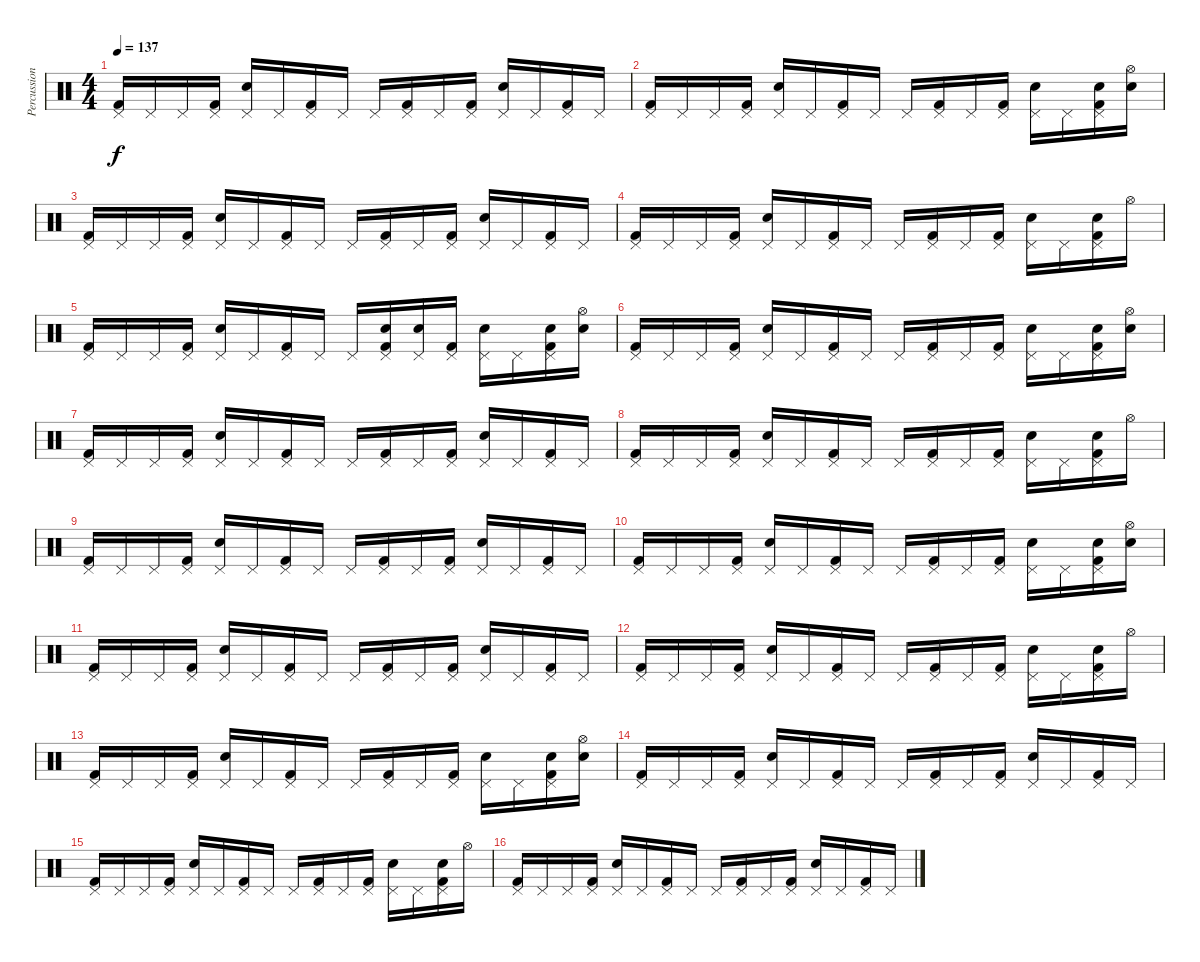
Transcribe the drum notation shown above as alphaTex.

\track ("Percussion" "Percussion") {instrument percussion}
\staff {score}
\articulation defaults
\ts (4 4)
\tempo 137
\clef neutral
\ks c
("Pedal Hi-Hat (hit)" "Kick (hit) 2").16{dy f} "Pedal Hi-Hat (hit)".16 "Pedal Hi-Hat (hit)".16 ("Pedal Hi-Hat (hit)" "Kick (hit) 2").16 ("Pedal Hi-Hat (hit)" "Snare (hit) 2").16 "Pedal Hi-Hat (hit)".16 ("Pedal Hi-Hat (hit)" "Kick (hit) 2").16 "Pedal Hi-Hat (hit)".16 "Pedal Hi-Hat (hit)".16 ("Pedal Hi-Hat (hit)" "Kick (hit) 2").16 "Pedal Hi-Hat (hit)".16 ("Pedal Hi-Hat (hit)" "Kick (hit) 2").16 ("Pedal Hi-Hat (hit)" "Snare (hit) 2").16 "Pedal Hi-Hat (hit)".16 ("Pedal Hi-Hat (hit)" "Kick (hit) 2").16 "Pedal Hi-Hat (hit)".16 |
("Pedal Hi-Hat (hit)" "Kick (hit) 2").16 "Pedal Hi-Hat (hit)".16 "Pedal Hi-Hat (hit)".16 ("Pedal Hi-Hat (hit)" "Kick (hit) 2").16 ("Pedal Hi-Hat (hit)" "Snare (hit) 2").16 "Pedal Hi-Hat (hit)".16 ("Pedal Hi-Hat (hit)" "Kick (hit) 2").16 "Pedal Hi-Hat (hit)".16 "Pedal Hi-Hat (hit)".16 ("Pedal Hi-Hat (hit)" "Kick (hit) 2").16 "Pedal Hi-Hat (hit)".16 ("Pedal Hi-Hat (hit)" "Kick (hit) 2").16 ("Pedal Hi-Hat (hit)" "Snare (hit) 2").16 "Pedal Hi-Hat (hit)".16 ("Pedal Hi-Hat (hit)" "Snare (hit) 2" "Kick (hit) 2").16 ("Hi-Hat (open)" "Snare (hit) 2").16 |
("Pedal Hi-Hat (hit)" "Kick (hit) 2").16 "Pedal Hi-Hat (hit)".16 "Pedal Hi-Hat (hit)".16 ("Pedal Hi-Hat (hit)" "Kick (hit) 2").16 ("Pedal Hi-Hat (hit)" "Snare (hit) 2").16 "Pedal Hi-Hat (hit)".16 ("Pedal Hi-Hat (hit)" "Kick (hit) 2").16 "Pedal Hi-Hat (hit)".16 "Pedal Hi-Hat (hit)".16 ("Pedal Hi-Hat (hit)" "Kick (hit) 2").16 "Pedal Hi-Hat (hit)".16 ("Pedal Hi-Hat (hit)" "Kick (hit) 2").16 ("Pedal Hi-Hat (hit)" "Snare (hit) 2").16 "Pedal Hi-Hat (hit)".16 ("Pedal Hi-Hat (hit)" "Kick (hit) 2").16 "Pedal Hi-Hat (hit)".16 |
("Pedal Hi-Hat (hit)" "Kick (hit) 2").16 "Pedal Hi-Hat (hit)".16 "Pedal Hi-Hat (hit)".16 ("Pedal Hi-Hat (hit)" "Kick (hit) 2").16 ("Pedal Hi-Hat (hit)" "Snare (hit) 2").16 "Pedal Hi-Hat (hit)".16 ("Pedal Hi-Hat (hit)" "Kick (hit) 2").16 "Pedal Hi-Hat (hit)".16 "Pedal Hi-Hat (hit)".16 ("Pedal Hi-Hat (hit)" "Kick (hit) 2").16 "Pedal Hi-Hat (hit)".16 ("Pedal Hi-Hat (hit)" "Kick (hit) 2").16 ("Pedal Hi-Hat (hit)" "Snare (hit) 2").16 "Pedal Hi-Hat (hit)".16 ("Pedal Hi-Hat (hit)" "Snare (hit) 2" "Kick (hit) 2").16 "Hi-Hat (open)".16 |
("Pedal Hi-Hat (hit)" "Kick (hit) 2").16 "Pedal Hi-Hat (hit)".16 "Pedal Hi-Hat (hit)".16 ("Pedal Hi-Hat (hit)" "Kick (hit) 2").16 ("Pedal Hi-Hat (hit)" "Snare (hit) 2").16 "Pedal Hi-Hat (hit)".16 ("Pedal Hi-Hat (hit)" "Kick (hit) 2").16 "Pedal Hi-Hat (hit)".16 "Pedal Hi-Hat (hit)".16 ("Pedal Hi-Hat (hit)" "Snare (hit) 2" "Kick (hit) 2").16 ("Pedal Hi-Hat (hit)" "Snare (hit) 2").16 ("Pedal Hi-Hat (hit)" "Kick (hit) 2").16 ("Pedal Hi-Hat (hit)" "Snare (hit) 2").16 "Pedal Hi-Hat (hit)".16 ("Pedal Hi-Hat (hit)" "Snare (hit) 2" "Kick (hit) 2").16 ("Hi-Hat (open)" "Snare (hit) 2").16 |
("Pedal Hi-Hat (hit)" "Kick (hit) 2").16 "Pedal Hi-Hat (hit)".16 "Pedal Hi-Hat (hit)".16 ("Pedal Hi-Hat (hit)" "Kick (hit) 2").16 ("Pedal Hi-Hat (hit)" "Snare (hit) 2").16 "Pedal Hi-Hat (hit)".16 ("Pedal Hi-Hat (hit)" "Kick (hit) 2").16 "Pedal Hi-Hat (hit)".16 "Pedal Hi-Hat (hit)".16 ("Pedal Hi-Hat (hit)" "Kick (hit) 2").16 "Pedal Hi-Hat (hit)".16 ("Pedal Hi-Hat (hit)" "Kick (hit) 2").16 ("Pedal Hi-Hat (hit)" "Snare (hit) 2").16 "Pedal Hi-Hat (hit)".16 ("Pedal Hi-Hat (hit)" "Snare (hit) 2" "Kick (hit) 2").16 ("Hi-Hat (open)" "Snare (hit) 2").16 |
("Pedal Hi-Hat (hit)" "Kick (hit) 2").16 "Pedal Hi-Hat (hit)".16 "Pedal Hi-Hat (hit)".16 ("Pedal Hi-Hat (hit)" "Kick (hit) 2").16 ("Pedal Hi-Hat (hit)" "Snare (hit) 2").16 "Pedal Hi-Hat (hit)".16 ("Pedal Hi-Hat (hit)" "Kick (hit) 2").16 "Pedal Hi-Hat (hit)".16 "Pedal Hi-Hat (hit)".16 ("Pedal Hi-Hat (hit)" "Kick (hit) 2").16 "Pedal Hi-Hat (hit)".16 ("Pedal Hi-Hat (hit)" "Kick (hit) 2").16 ("Pedal Hi-Hat (hit)" "Snare (hit) 2").16 "Pedal Hi-Hat (hit)".16 ("Pedal Hi-Hat (hit)" "Kick (hit) 2").16 "Pedal Hi-Hat (hit)".16 |
("Pedal Hi-Hat (hit)" "Kick (hit) 2").16 "Pedal Hi-Hat (hit)".16 "Pedal Hi-Hat (hit)".16 ("Pedal Hi-Hat (hit)" "Kick (hit) 2").16 ("Pedal Hi-Hat (hit)" "Snare (hit) 2").16 "Pedal Hi-Hat (hit)".16 ("Pedal Hi-Hat (hit)" "Kick (hit) 2").16 "Pedal Hi-Hat (hit)".16 "Pedal Hi-Hat (hit)".16 ("Pedal Hi-Hat (hit)" "Kick (hit) 2").16 "Pedal Hi-Hat (hit)".16 ("Pedal Hi-Hat (hit)" "Kick (hit) 2").16 ("Pedal Hi-Hat (hit)" "Snare (hit) 2").16 "Pedal Hi-Hat (hit)".16 ("Pedal Hi-Hat (hit)" "Snare (hit) 2" "Kick (hit) 2").16 "Hi-Hat (open)".16 |
("Pedal Hi-Hat (hit)" "Kick (hit) 2").16 "Pedal Hi-Hat (hit)".16 "Pedal Hi-Hat (hit)".16 ("Pedal Hi-Hat (hit)" "Kick (hit) 2").16 ("Pedal Hi-Hat (hit)" "Snare (hit) 2").16 "Pedal Hi-Hat (hit)".16 ("Pedal Hi-Hat (hit)" "Kick (hit) 2").16 "Pedal Hi-Hat (hit)".16 "Pedal Hi-Hat (hit)".16 ("Pedal Hi-Hat (hit)" "Kick (hit) 2").16 "Pedal Hi-Hat (hit)".16 ("Pedal Hi-Hat (hit)" "Kick (hit) 2").16 ("Pedal Hi-Hat (hit)" "Snare (hit) 2").16 "Pedal Hi-Hat (hit)".16 ("Pedal Hi-Hat (hit)" "Kick (hit) 2").16 "Pedal Hi-Hat (hit)".16 |
("Pedal Hi-Hat (hit)" "Kick (hit) 2").16 "Pedal Hi-Hat (hit)".16 "Pedal Hi-Hat (hit)".16 ("Pedal Hi-Hat (hit)" "Kick (hit) 2").16 ("Pedal Hi-Hat (hit)" "Snare (hit) 2").16 "Pedal Hi-Hat (hit)".16 ("Pedal Hi-Hat (hit)" "Kick (hit) 2").16 "Pedal Hi-Hat (hit)".16 "Pedal Hi-Hat (hit)".16 ("Pedal Hi-Hat (hit)" "Kick (hit) 2").16 "Pedal Hi-Hat (hit)".16 ("Pedal Hi-Hat (hit)" "Kick (hit) 2").16 ("Pedal Hi-Hat (hit)" "Snare (hit) 2").16 "Pedal Hi-Hat (hit)".16 ("Pedal Hi-Hat (hit)" "Snare (hit) 2" "Kick (hit) 2").16 ("Hi-Hat (open)" "Snare (hit) 2").16 |
("Pedal Hi-Hat (hit)" "Kick (hit) 2").16 "Pedal Hi-Hat (hit)".16 "Pedal Hi-Hat (hit)".16 ("Pedal Hi-Hat (hit)" "Kick (hit) 2").16 ("Pedal Hi-Hat (hit)" "Snare (hit) 2").16 "Pedal Hi-Hat (hit)".16 ("Pedal Hi-Hat (hit)" "Kick (hit) 2").16 "Pedal Hi-Hat (hit)".16 "Pedal Hi-Hat (hit)".16 ("Pedal Hi-Hat (hit)" "Kick (hit) 2").16 "Pedal Hi-Hat (hit)".16 ("Pedal Hi-Hat (hit)" "Kick (hit) 2").16 ("Pedal Hi-Hat (hit)" "Snare (hit) 2").16 "Pedal Hi-Hat (hit)".16 ("Pedal Hi-Hat (hit)" "Kick (hit) 2").16 "Pedal Hi-Hat (hit)".16 |
("Pedal Hi-Hat (hit)" "Kick (hit) 2").16 "Pedal Hi-Hat (hit)".16 "Pedal Hi-Hat (hit)".16 ("Pedal Hi-Hat (hit)" "Kick (hit) 2").16 ("Pedal Hi-Hat (hit)" "Snare (hit) 2").16 "Pedal Hi-Hat (hit)".16 ("Pedal Hi-Hat (hit)" "Kick (hit) 2").16 "Pedal Hi-Hat (hit)".16 "Pedal Hi-Hat (hit)".16 ("Pedal Hi-Hat (hit)" "Kick (hit) 2").16 "Pedal Hi-Hat (hit)".16 ("Pedal Hi-Hat (hit)" "Kick (hit) 2").16 ("Pedal Hi-Hat (hit)" "Snare (hit) 2").16 "Pedal Hi-Hat (hit)".16 ("Pedal Hi-Hat (hit)" "Snare (hit) 2" "Kick (hit) 2").16 "Hi-Hat (open)".16 |
("Pedal Hi-Hat (hit)" "Kick (hit) 2").16 "Pedal Hi-Hat (hit)".16 "Pedal Hi-Hat (hit)".16 ("Pedal Hi-Hat (hit)" "Kick (hit) 2").16 ("Pedal Hi-Hat (hit)" "Snare (hit) 2").16 "Pedal Hi-Hat (hit)".16 ("Pedal Hi-Hat (hit)" "Kick (hit) 2").16 "Pedal Hi-Hat (hit)".16 "Pedal Hi-Hat (hit)".16 ("Pedal Hi-Hat (hit)" "Kick (hit) 2").16 "Pedal Hi-Hat (hit)".16 ("Pedal Hi-Hat (hit)" "Kick (hit) 2").16 ("Pedal Hi-Hat (hit)" "Snare (hit) 2").16 "Pedal Hi-Hat (hit)".16 ("Pedal Hi-Hat (hit)" "Snare (hit) 2" "Kick (hit) 2").16 ("Hi-Hat (open)" "Snare (hit) 2").16 |
("Pedal Hi-Hat (hit)" "Kick (hit) 2").16 "Pedal Hi-Hat (hit)".16 "Pedal Hi-Hat (hit)".16 ("Pedal Hi-Hat (hit)" "Kick (hit) 2").16 ("Pedal Hi-Hat (hit)" "Snare (hit) 2").16 "Pedal Hi-Hat (hit)".16 ("Pedal Hi-Hat (hit)" "Kick (hit) 2").16 "Pedal Hi-Hat (hit)".16 "Pedal Hi-Hat (hit)".16 ("Pedal Hi-Hat (hit)" "Kick (hit) 2").16 "Pedal Hi-Hat (hit)".16 ("Pedal Hi-Hat (hit)" "Kick (hit) 2").16 ("Pedal Hi-Hat (hit)" "Snare (hit) 2").16 "Pedal Hi-Hat (hit)".16 ("Pedal Hi-Hat (hit)" "Kick (hit) 2").16 "Pedal Hi-Hat (hit)".16 |
("Pedal Hi-Hat (hit)" "Kick (hit) 2").16 "Pedal Hi-Hat (hit)".16 "Pedal Hi-Hat (hit)".16 ("Pedal Hi-Hat (hit)" "Kick (hit) 2").16 ("Pedal Hi-Hat (hit)" "Snare (hit) 2").16 "Pedal Hi-Hat (hit)".16 ("Pedal Hi-Hat (hit)" "Kick (hit) 2").16 "Pedal Hi-Hat (hit)".16 "Pedal Hi-Hat (hit)".16 ("Pedal Hi-Hat (hit)" "Kick (hit) 2").16 "Pedal Hi-Hat (hit)".16 ("Pedal Hi-Hat (hit)" "Kick (hit) 2").16 ("Pedal Hi-Hat (hit)" "Snare (hit) 2").16 "Pedal Hi-Hat (hit)".16 ("Pedal Hi-Hat (hit)" "Snare (hit) 2" "Kick (hit) 2").16 "Hi-Hat (open)".16 |
("Pedal Hi-Hat (hit)" "Kick (hit) 2").16 "Pedal Hi-Hat (hit)".16 "Pedal Hi-Hat (hit)".16 ("Pedal Hi-Hat (hit)" "Kick (hit) 2").16 ("Pedal Hi-Hat (hit)" "Snare (hit) 2").16 "Pedal Hi-Hat (hit)".16 ("Pedal Hi-Hat (hit)" "Kick (hit) 2").16 "Pedal Hi-Hat (hit)".16 "Pedal Hi-Hat (hit)".16 ("Pedal Hi-Hat (hit)" "Kick (hit) 2").16 "Pedal Hi-Hat (hit)".16 ("Pedal Hi-Hat (hit)" "Kick (hit) 2").16 ("Pedal Hi-Hat (hit)" "Snare (hit) 2").16 "Pedal Hi-Hat (hit)".16 ("Pedal Hi-Hat (hit)" "Kick (hit) 2").16 "Pedal Hi-Hat (hit)".16
